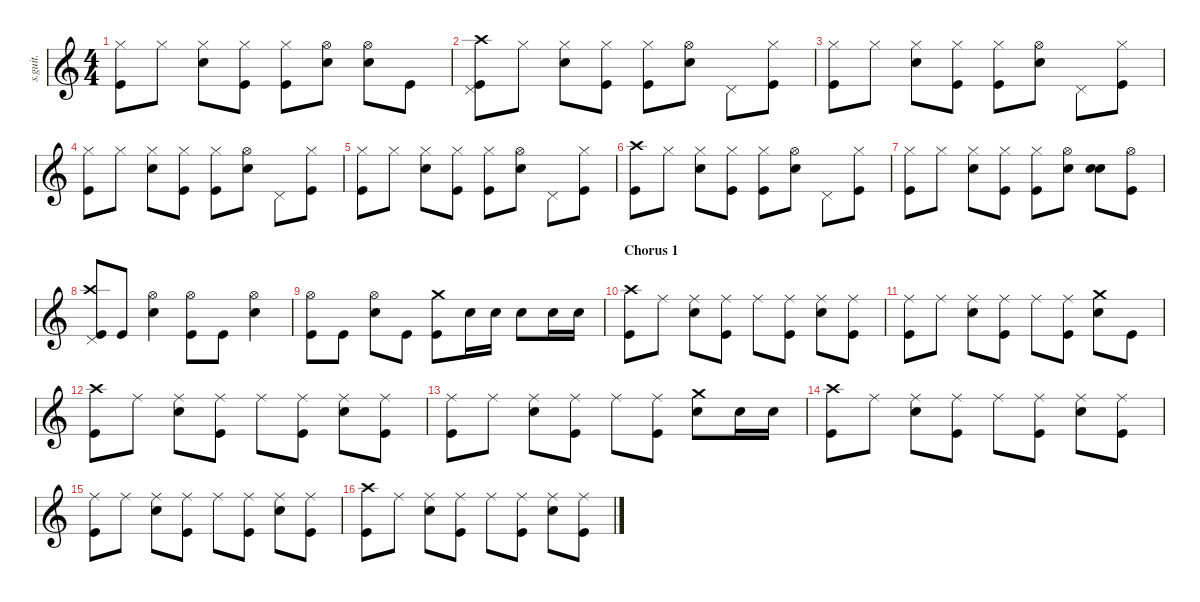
\defaultSystemsLayout 4
\hideDynamics
\bracketExtendMode nobrackets
\track ("Dave Grohl" "s.guit.") {instrument percussion}
\staff {score}
\articulation defaults
\ts (4 4)
\tempo (136 hide)
\clef g2
\ks c
("Hi-Hat (closed)" "Kick (hit)").8{dy f} "Hi-Hat (closed)".8{dy ppp} ("Hi-Hat (closed)" "Snare (hit) 2").8{dy f} ("Hi-Hat (closed)" "Kick (hit)").8 ("Hi-Hat (closed)" "Kick (hit)").8 ("Hi-Hat (open)" "Snare (hit) 2").8 ("Hi-Hat (open)" "Snare (hit) 2").8 "Kick (hit)".8 |
("Crash high (hit)" "Pedal Hi-Hat (hit)" "Kick (hit)").8 "Hi-Hat (closed)".8{dy ppp} ("Hi-Hat (closed)" "Snare (hit) 2").8{dy f} ("Hi-Hat (closed)" "Kick (hit)").8 ("Hi-Hat (closed)" "Kick (hit)").8 ("Hi-Hat (open)" "Snare (hit) 2").8 "Pedal Hi-Hat (hit)".8 ("Hi-Hat (closed)" "Kick (hit)").8 |
("Hi-Hat (closed)" "Kick (hit)").8 "Hi-Hat (closed)".8{dy ppp} ("Hi-Hat (closed)" "Snare (hit) 2").8{dy f} ("Hi-Hat (closed)" "Kick (hit)").8 ("Hi-Hat (closed)" "Kick (hit)").8 ("Hi-Hat (open)" "Snare (hit) 2").8 "Pedal Hi-Hat (hit)".8 ("Hi-Hat (closed)" "Kick (hit)").8 |
("Hi-Hat (closed)" "Kick (hit)").8 "Hi-Hat (closed)".8{dy ppp} ("Hi-Hat (closed)" "Snare (hit) 2").8{dy f} ("Hi-Hat (closed)" "Kick (hit)").8 ("Hi-Hat (closed)" "Kick (hit)").8 ("Hi-Hat (open)" "Snare (hit) 2").8 "Pedal Hi-Hat (hit)".8 ("Hi-Hat (closed)" "Kick (hit)").8 |
("Hi-Hat (closed)" "Kick (hit)").8 "Hi-Hat (closed)".8{dy ppp} ("Hi-Hat (closed)" "Snare (hit) 2").8{dy f} ("Hi-Hat (closed)" "Kick (hit)").8 ("Hi-Hat (closed)" "Kick (hit)").8 ("Hi-Hat (open)" "Snare (hit) 2").8 "Pedal Hi-Hat (hit)".8 ("Hi-Hat (closed)" "Kick (hit)").8 |
("Crash high (hit)" "Kick (hit)").8 "Hi-Hat (closed)".8{dy ppp} ("Hi-Hat (closed)" "Snare (hit) 2").8{dy f} ("Hi-Hat (closed)" "Kick (hit)").8 ("Hi-Hat (closed)" "Kick (hit)").8 ("Hi-Hat (open)" "Snare (hit) 2").8 "Pedal Hi-Hat (hit)".8 ("Hi-Hat (closed)" "Kick (hit)").8 |
("Hi-Hat (closed)" "Kick (hit)").8 "Hi-Hat (closed)".8{dy ppp} ("Hi-Hat (closed)" "Snare (hit) 2").8{dy f} ("Hi-Hat (closed)" "Kick (hit)").8 ("Hi-Hat (closed)" "Kick (hit)").8 ("Hi-Hat (open)" "Snare (hit) 2").8 ("Snare (hit) 2" "Snare (hit) 2").8{bd 30} ("Hi-Hat (open)" "Kick (hit)").8 |
("Crash high (hit)" "Pedal Hi-Hat (hit)" "Kick (hit)").8 "Kick (hit)".8 ("Hi-Hat (open)" "Snare (hit) 2").4 ("Hi-Hat (open)" "Kick (hit)").8 "Kick (hit)".8 ("Hi-Hat (open)" "Snare (hit) 2").4 |
("Hi-Hat (open)" "Kick (hit)").8 "Kick (hit)".8 ("Hi-Hat (open)" "Snare (hit) 2").8 "Kick (hit)".8 ("Crash medium (hit)" "Kick (hit)").8 "Snare (hit) 2".16 "Snare (hit) 2".16 "Snare (hit) 2".8 "Snare (hit) 2".16 "Snare (hit) 2".16 |
\section ("" "Chorus 1")
("Crash high (hit)" "Kick (hit)").8 "Ride (middle)".8{dy ppp} ("Ride (middle)" "Snare (hit) 2").8{dy f} ("Ride (middle)" "Kick (hit)").8 "Ride (middle)".8 ("Ride (middle)" "Kick (hit)").8 ("Ride (middle)" "Snare (hit) 2").8 ("Ride (middle)" "Kick (hit)").8 |
("Ride (middle)" "Kick (hit)").8 "Ride (middle)".8{dy ppp} ("Ride (middle)" "Snare (hit) 2").8{dy f} ("Ride (middle)" "Kick (hit)").8 "Ride (middle)".8 ("Ride (middle)" "Kick (hit)").8 ("Crash medium (hit)" "Snare (hit) 2").8 "Kick (hit)".8 |
("Crash high (hit)" "Kick (hit)").8 "Ride (middle)".8{dy ppp} ("Ride (middle)" "Snare (hit) 2").8{dy f} ("Ride (middle)" "Kick (hit)").8 "Ride (middle)".8 ("Ride (middle)" "Kick (hit)").8 ("Ride (middle)" "Snare (hit) 2").8 ("Ride (middle)" "Kick (hit)").8 |
("Ride (middle)" "Kick (hit)").8 "Ride (middle)".8{dy ppp} ("Ride (middle)" "Snare (hit) 2").8{dy f} ("Ride (middle)" "Kick (hit)").8 "Ride (middle)".8 ("Ride (middle)" "Kick (hit)").8 ("Crash medium (hit)" "Snare (hit) 2").8 "Snare (hit) 2".16 "Snare (hit) 2".16 |
("Crash high (hit)" "Kick (hit)").8 "Ride (middle)".8{dy ppp} ("Ride (middle)" "Snare (hit) 2").8{dy f} ("Ride (middle)" "Kick (hit)").8 "Ride (middle)".8 ("Ride (middle)" "Kick (hit)").8 ("Ride (middle)" "Snare (hit) 2").8 ("Ride (middle)" "Kick (hit)").8 |
("Ride (middle)" "Kick (hit)").8 "Ride (middle)".8{dy ppp} ("Ride (middle)" "Snare (hit) 2").8{dy f} ("Ride (middle)" "Kick (hit)").8 "Ride (middle)".8 ("Ride (middle)" "Kick (hit)").8 ("Ride (middle)" "Snare (hit) 2").8 ("Ride (middle)" "Kick (hit)").8 |
("Crash high (hit)" "Kick (hit)").8 "Ride (middle)".8{dy ppp} ("Ride (middle)" "Snare (hit) 2").8{dy f} ("Ride (middle)" "Kick (hit)").8 "Ride (middle)".8 ("Ride (middle)" "Kick (hit)").8 ("Ride (middle)" "Snare (hit) 2").8 ("Ride (middle)" "Kick (hit)").8
